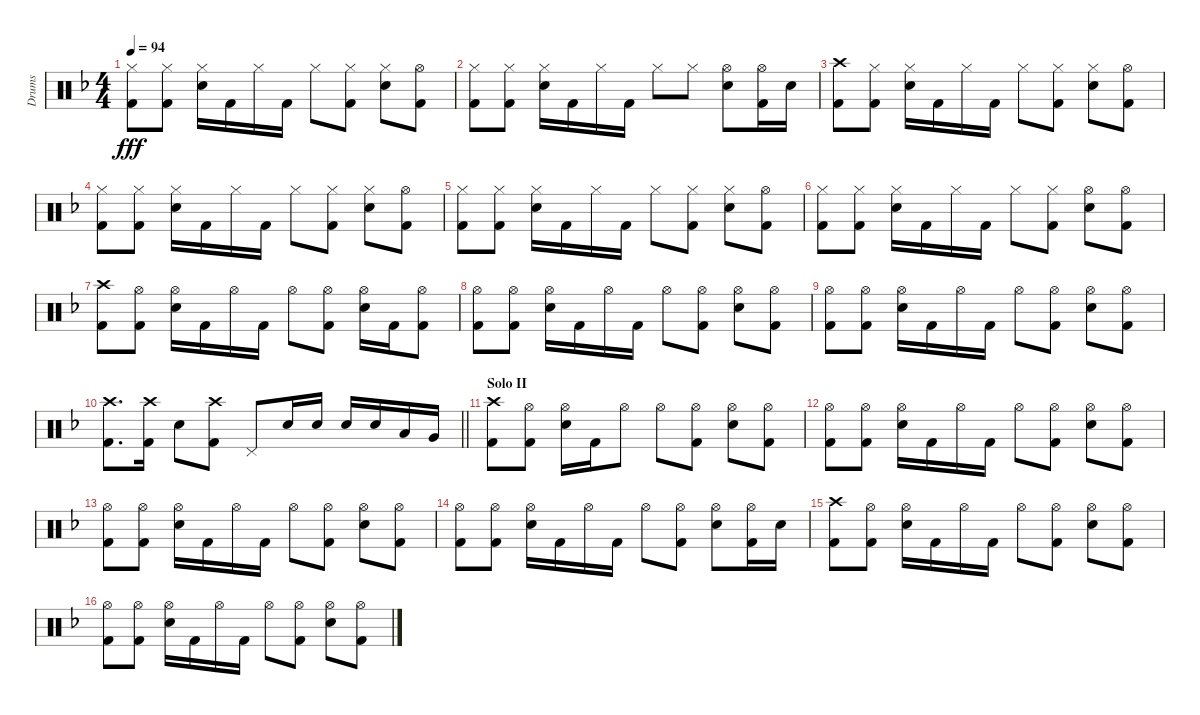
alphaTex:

\track ("Drums" "Drums") {instrument percussion}
\staff {score}
\articulation defaults
\ts (4 4)
\tempo 94
\clef neutral
\ks f
("Hi-Hat (closed)" "Kick (hit) 2").8{dy fff} ("Hi-Hat (closed)" "Kick (hit) 2").8 ("Hi-Hat (closed)" "Snare (hit) 2").16 "Kick (hit) 2".16 "Hi-Hat (closed)".16 "Kick (hit) 2".16 "Hi-Hat (closed)".8 ("Hi-Hat (closed)" "Kick (hit) 2").8 ("Hi-Hat (closed)" "Snare (hit) 2").8 ("Hi-Hat (open)" "Kick (hit) 2").8 |
("Hi-Hat (closed)" "Kick (hit) 2").8 ("Hi-Hat (closed)" "Kick (hit) 2").8 ("Hi-Hat (closed)" "Snare (hit) 2").16 "Kick (hit) 2".16 "Hi-Hat (closed)".16 "Kick (hit) 2".16 "Hi-Hat (closed)".8 "Hi-Hat (closed)".8 ("Hi-Hat (open)" "Snare (hit) 2").8 ("Hi-Hat (open)" "Kick (hit) 2").16 "Snare (hit) 2".16 |
("Crash high (hit)" "Kick (hit) 2").8 ("Hi-Hat (closed)" "Kick (hit) 2").8 ("Hi-Hat (closed)" "Snare (hit) 2").16 "Kick (hit) 2".16 "Hi-Hat (closed)".16 "Kick (hit) 2".16 "Hi-Hat (closed)".8 ("Hi-Hat (closed)" "Kick (hit) 2").8 ("Hi-Hat (closed)" "Snare (hit) 2").8 ("Hi-Hat (open)" "Kick (hit) 2").8 |
("Hi-Hat (closed)" "Kick (hit) 2").8 ("Hi-Hat (closed)" "Kick (hit) 2").8 ("Hi-Hat (closed)" "Snare (hit) 2").16 "Kick (hit) 2".16 "Hi-Hat (closed)".16 "Kick (hit) 2".16 "Hi-Hat (closed)".8 ("Hi-Hat (closed)" "Kick (hit) 2").8 ("Hi-Hat (closed)" "Snare (hit) 2").8 ("Hi-Hat (open)" "Kick (hit) 2").8 |
("Hi-Hat (closed)" "Kick (hit) 2").8 ("Hi-Hat (closed)" "Kick (hit) 2").8 ("Hi-Hat (closed)" "Snare (hit) 2").16 "Kick (hit) 2".16 "Hi-Hat (closed)".16 "Kick (hit) 2".16 "Hi-Hat (closed)".8 ("Hi-Hat (closed)" "Kick (hit) 2").8 ("Hi-Hat (closed)" "Snare (hit) 2").8 ("Hi-Hat (open)" "Kick (hit) 2").8 |
("Hi-Hat (closed)" "Kick (hit) 2").8 ("Hi-Hat (closed)" "Kick (hit) 2").8 ("Hi-Hat (closed)" "Snare (hit) 2").16 "Kick (hit) 2".16 "Hi-Hat (closed)".16 "Kick (hit) 2".16 "Hi-Hat (closed)".8 ("Hi-Hat (closed)" "Kick (hit) 2").8 ("Hi-Hat (open)" "Snare (hit) 2").8 ("Hi-Hat (open)" "Kick (hit) 2").8 |
("Crash high (hit)" "Kick (hit) 2").8 ("Hi-Hat (open)" "Kick (hit) 2").8 ("Hi-Hat (open)" "Snare (hit) 2").16 "Kick (hit) 2".16 "Hi-Hat (open)".16 "Kick (hit) 2".16 "Hi-Hat (open)".8 ("Hi-Hat (open)" "Kick (hit) 2").8 ("Hi-Hat (open)" "Snare (hit) 2").16 "Kick (hit) 2".16 ("Hi-Hat (open)" "Kick (hit) 2").8 |
("Hi-Hat (open)" "Kick (hit) 2").8 ("Hi-Hat (open)" "Kick (hit) 2").8 ("Hi-Hat (open)" "Snare (hit) 2").16 "Kick (hit) 2".16 "Hi-Hat (open)".16 "Kick (hit) 2".16 "Hi-Hat (open)".8 ("Hi-Hat (open)" "Kick (hit) 2").8 ("Hi-Hat (open)" "Snare (hit) 2").8 ("Hi-Hat (open)" "Kick (hit) 2").8 |
("Hi-Hat (open)" "Kick (hit) 2").8 ("Hi-Hat (open)" "Kick (hit) 2").8 ("Hi-Hat (open)" "Snare (hit) 2").16 "Kick (hit) 2".16 "Hi-Hat (open)".16 "Kick (hit) 2".16 "Hi-Hat (open)".8 ("Hi-Hat (open)" "Kick (hit) 2").8 ("Hi-Hat (open)" "Snare (hit) 2").8 ("Hi-Hat (open)" "Kick (hit) 2").8 |
\barLineRight lightlight
("Crash high (hit)" "Kick (hit) 2").8{d} ("Crash high (hit)" "Kick (hit) 2").16 "Snare (hit) 2".8 ("Crash high (hit)" "Kick (hit) 2").8 "Pedal Hi-Hat (hit)".8 "Snare (hit) 2".16 "Snare (hit) 2".16 "Snare (hit) 2".16 "Snare (hit) 2".16 "Low Tom (hit)".16 "Very Low Tom (hit)".16 |
\section ("" "Solo II")
("Crash high (hit)" "Kick (hit) 2").8 ("Hi-Hat (open)" "Kick (hit) 2").8 ("Hi-Hat (open)" "Snare (hit) 2").16 "Kick (hit) 2".16 "Hi-Hat (open)".8 "Hi-Hat (open)".8 ("Hi-Hat (open)" "Kick (hit) 2").8 ("Hi-Hat (open)" "Snare (hit) 2").8 ("Hi-Hat (open)" "Kick (hit) 2").8 |
("Hi-Hat (open)" "Kick (hit) 2").8 ("Hi-Hat (open)" "Kick (hit) 2").8 ("Hi-Hat (open)" "Snare (hit) 2").16 "Kick (hit) 2".16 "Hi-Hat (open)".16 "Kick (hit) 2".16 "Hi-Hat (open)".8 ("Hi-Hat (open)" "Kick (hit) 2").8 ("Hi-Hat (open)" "Snare (hit) 2").8 ("Hi-Hat (open)" "Kick (hit) 2").8 |
("Hi-Hat (open)" "Kick (hit) 2").8 ("Hi-Hat (open)" "Kick (hit) 2").8 ("Hi-Hat (open)" "Snare (hit) 2").16 "Kick (hit) 2".16 "Hi-Hat (open)".16 "Kick (hit) 2".16 "Hi-Hat (open)".8 ("Hi-Hat (open)" "Kick (hit) 2").8 ("Hi-Hat (open)" "Snare (hit) 2").8 ("Hi-Hat (open)" "Kick (hit) 2").8 |
("Hi-Hat (open)" "Kick (hit) 2").8 ("Hi-Hat (open)" "Kick (hit) 2").8 ("Hi-Hat (open)" "Snare (hit) 2").16 "Kick (hit) 2".16 "Hi-Hat (open)".16 "Kick (hit) 2".16 "Hi-Hat (open)".8 ("Hi-Hat (open)" "Kick (hit) 2").8 ("Hi-Hat (open)" "Snare (hit) 2").8 ("Hi-Hat (open)" "Kick (hit) 2").16 "Snare (hit) 2".16 |
("Crash high (hit)" "Kick (hit) 2").8 ("Hi-Hat (open)" "Kick (hit) 2").8 ("Hi-Hat (open)" "Snare (hit) 2").16 "Kick (hit) 2".16 "Hi-Hat (open)".16 "Kick (hit) 2".16 "Hi-Hat (open)".8 ("Hi-Hat (open)" "Kick (hit) 2").8 ("Hi-Hat (open)" "Snare (hit) 2").8 ("Hi-Hat (open)" "Kick (hit) 2").8 |
("Hi-Hat (open)" "Kick (hit) 2").8 ("Hi-Hat (open)" "Kick (hit) 2").8 ("Hi-Hat (open)" "Snare (hit) 2").16 "Kick (hit) 2".16 "Hi-Hat (open)".16 "Kick (hit) 2".16 "Hi-Hat (open)".8 ("Hi-Hat (open)" "Kick (hit) 2").8 ("Hi-Hat (open)" "Snare (hit) 2").8 ("Hi-Hat (open)" "Kick (hit) 2").8
